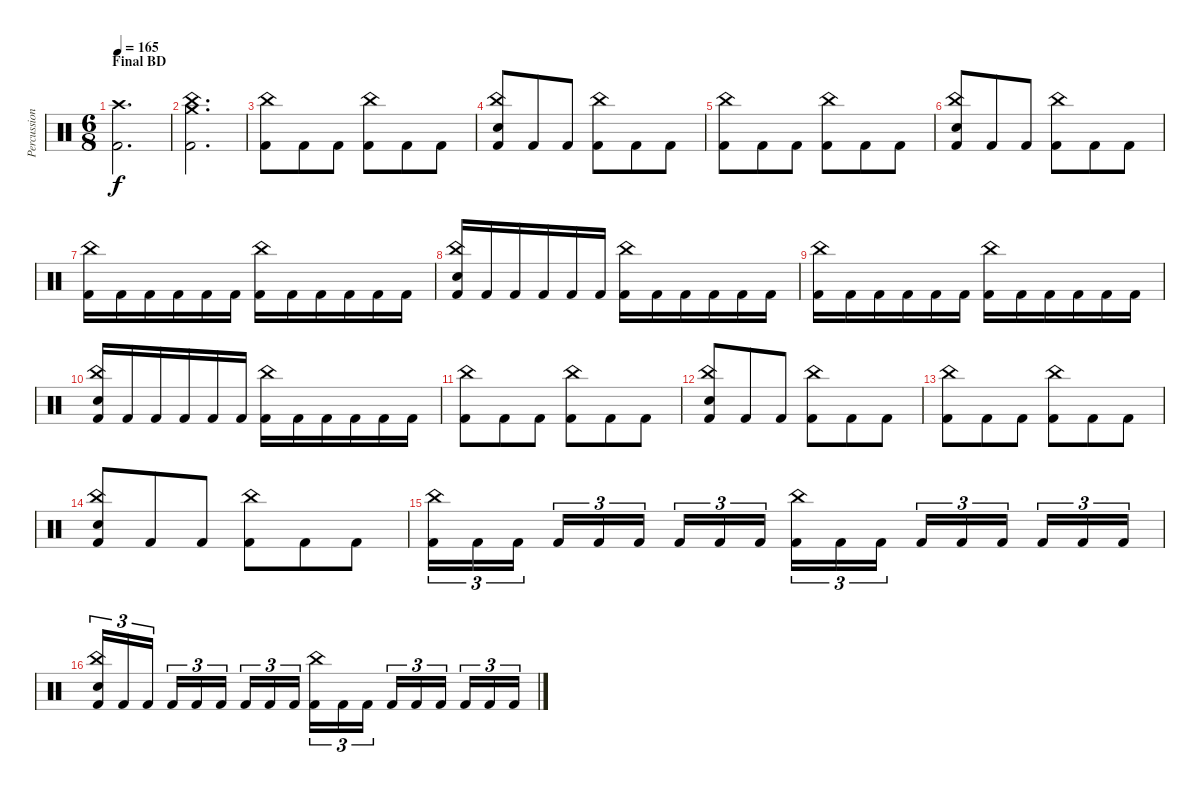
\track ("Percussion" "Percussion") {instrument percussion}
\staff {score}
\articulation defaults
\ts (6 8)
\section ("" "Final BD")
\tempo 165
\clef neutral
\ks c
("Crash high (hit)" "Kick (hit) 2").2{d dy f} |
("China (hit)" "Crash medium (hit)" "Kick (hit) 2").2{d} |
("China (hit)" "Kick (hit) 2").8 "Kick (hit) 2".8 "Kick (hit) 2".8 ("China (hit)" "Kick (hit) 2").8 "Kick (hit) 2".8 "Kick (hit) 2".8 |
("China (hit)" "Electric Snare (hit)" "Kick (hit) 2").8 "Kick (hit) 2".8 "Kick (hit) 2".8 ("China (hit)" "Kick (hit) 2").8 "Kick (hit) 2".8 "Kick (hit) 2".8 |
("China (hit)" "Kick (hit) 2").8 "Kick (hit) 2".8 "Kick (hit) 2".8 ("China (hit)" "Kick (hit) 2").8 "Kick (hit) 2".8 "Kick (hit) 2".8 |
("China (hit)" "Electric Snare (hit)" "Kick (hit) 2").8 "Kick (hit) 2".8 "Kick (hit) 2".8 ("China (hit)" "Kick (hit) 2").8 "Kick (hit) 2".8 "Kick (hit) 2".8 |
("China (hit)" "Kick (hit) 2").16 "Kick (hit) 2".16 "Kick (hit) 2".16 "Kick (hit) 2".16 "Kick (hit) 2".16 "Kick (hit) 2".16 ("China (hit)" "Kick (hit) 2").16 "Kick (hit) 2".16 "Kick (hit) 2".16 "Kick (hit) 2".16 "Kick (hit) 2".16 "Kick (hit) 2".16 |
("China (hit)" "Electric Snare (hit)" "Kick (hit) 2").16 "Kick (hit) 2".16 "Kick (hit) 2".16 "Kick (hit) 2".16 "Kick (hit) 2".16 "Kick (hit) 2".16 ("China (hit)" "Kick (hit) 2").16 "Kick (hit) 2".16 "Kick (hit) 2".16 "Kick (hit) 2".16 "Kick (hit) 2".16 "Kick (hit) 2".16 |
("China (hit)" "Kick (hit) 2").16 "Kick (hit) 2".16 "Kick (hit) 2".16 "Kick (hit) 2".16 "Kick (hit) 2".16 "Kick (hit) 2".16 ("China (hit)" "Kick (hit) 2").16 "Kick (hit) 2".16 "Kick (hit) 2".16 "Kick (hit) 2".16 "Kick (hit) 2".16 "Kick (hit) 2".16 |
("China (hit)" "Electric Snare (hit)" "Kick (hit) 2").16 "Kick (hit) 2".16 "Kick (hit) 2".16 "Kick (hit) 2".16 "Kick (hit) 2".16 "Kick (hit) 2".16 ("China (hit)" "Kick (hit) 2").16 "Kick (hit) 2".16 "Kick (hit) 2".16 "Kick (hit) 2".16 "Kick (hit) 2".16 "Kick (hit) 2".16 |
("China (hit)" "Kick (hit) 2").8 "Kick (hit) 2".8 "Kick (hit) 2".8 ("China (hit)" "Kick (hit) 2").8 "Kick (hit) 2".8 "Kick (hit) 2".8 |
("China (hit)" "Electric Snare (hit)" "Kick (hit) 2").8 "Kick (hit) 2".8 "Kick (hit) 2".8 ("China (hit)" "Kick (hit) 2").8 "Kick (hit) 2".8 "Kick (hit) 2".8 |
("China (hit)" "Kick (hit) 2").8 "Kick (hit) 2".8 "Kick (hit) 2".8 ("China (hit)" "Kick (hit) 2").8 "Kick (hit) 2".8 "Kick (hit) 2".8 |
("China (hit)" "Electric Snare (hit)" "Kick (hit) 2").8 "Kick (hit) 2".8 "Kick (hit) 2".8 ("China (hit)" "Kick (hit) 2").8 "Kick (hit) 2".8 "Kick (hit) 2".8 |
("China (hit)" "Kick (hit) 2").16{tu (3 2)} "Kick (hit) 2".16{tu (3 2)} "Kick (hit) 2".16{tu (3 2)} "Kick (hit) 2".16{tu (3 2)} "Kick (hit) 2".16{tu (3 2)} "Kick (hit) 2".16{tu (3 2)} "Kick (hit) 2".16{tu (3 2)} "Kick (hit) 2".16{tu (3 2)} "Kick (hit) 2".16{tu (3 2)} ("China (hit)" "Kick (hit) 2").16{tu (3 2)} "Kick (hit) 2".16{tu (3 2)} "Kick (hit) 2".16{tu (3 2)} "Kick (hit) 2".16{tu (3 2)} "Kick (hit) 2".16{tu (3 2)} "Kick (hit) 2".16{tu (3 2)} "Kick (hit) 2".16{tu (3 2)} "Kick (hit) 2".16{tu (3 2)} "Kick (hit) 2".16{tu (3 2)} |
("China (hit)" "Electric Snare (hit)" "Kick (hit) 2").16{tu (3 2)} "Kick (hit) 2".16{tu (3 2)} "Kick (hit) 2".16{tu (3 2)} "Kick (hit) 2".16{tu (3 2)} "Kick (hit) 2".16{tu (3 2)} "Kick (hit) 2".16{tu (3 2)} "Kick (hit) 2".16{tu (3 2)} "Kick (hit) 2".16{tu (3 2)} "Kick (hit) 2".16{tu (3 2)} ("China (hit)" "Kick (hit) 2").16{tu (3 2)} "Kick (hit) 2".16{tu (3 2)} "Kick (hit) 2".16{tu (3 2)} "Kick (hit) 2".16{tu (3 2)} "Kick (hit) 2".16{tu (3 2)} "Kick (hit) 2".16{tu (3 2)} "Kick (hit) 2".16{tu (3 2)} "Kick (hit) 2".16{tu (3 2)} "Kick (hit) 2".16{tu (3 2)}
